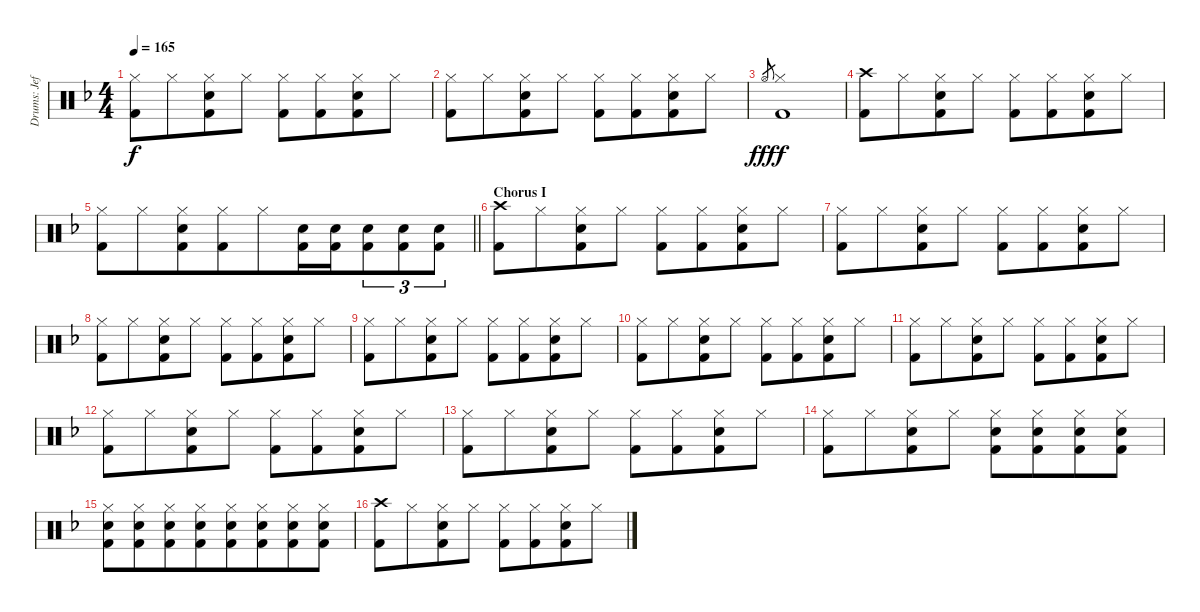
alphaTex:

\track ("Drums: Jeff" "Drums: Jef") {instrument percussion}
\staff {score}
\articulation defaults
\ts (4 4)
\tempo 165
\clef neutral
\ks f
("Hi-Hat (closed)" "Kick (hit) 2").8{dy f} "Hi-Hat (closed)".8{beam merge} ("Hi-Hat (closed)" "Snare (hit) 2" "Kick (hit) 2").8 "Hi-Hat (closed)".8{beam split} ("Hi-Hat (closed)" "Kick (hit) 2").8 ("Hi-Hat (closed)" "Kick (hit) 2").8{beam merge} ("Hi-Hat (closed)" "Snare (hit) 2" "Kick (hit) 2").8 "Hi-Hat (closed)".8 |
("Hi-Hat (closed)" "Kick (hit) 2").8 "Hi-Hat (closed)".8{beam merge} ("Hi-Hat (closed)" "Snare (hit) 2" "Kick (hit) 2").8 "Hi-Hat (closed)".8{beam split} ("Hi-Hat (closed)" "Kick (hit) 2").8 ("Hi-Hat (closed)" "Kick (hit) 2").8{beam merge} ("Hi-Hat (closed)" "Snare (hit) 2" "Kick (hit) 2").8 "Hi-Hat (closed)".8 |
"Hi-Hat (open)".8{gr dy fff} ("Hi-Hat (closed)" "Kick (hit) 2").1{dy f} |
("Crash high (hit)" "Kick (hit) 2").8 "Hi-Hat (closed)".8{beam merge} ("Hi-Hat (closed)" "Snare (hit) 2" "Kick (hit) 2").8 "Hi-Hat (closed)".8{beam split} ("Hi-Hat (closed)" "Kick (hit) 2").8 ("Hi-Hat (closed)" "Kick (hit) 2").8{beam merge} ("Hi-Hat (closed)" "Snare (hit) 2" "Kick (hit) 2").8 "Hi-Hat (closed)".8 |
\barLineRight lightlight
("Hi-Hat (closed)" "Kick (hit) 2").8 "Hi-Hat (closed)".8{beam merge} ("Hi-Hat (closed)" "Snare (hit) 2" "Kick (hit) 2").8{beam merge} ("Hi-Hat (closed)" "Kick (hit) 2").8{beam merge} "Hi-Hat (closed)".8{beam merge} ("Snare (hit) 2" "Kick (hit) 2").16{beam merge} ("Snare (hit) 2" "Kick (hit) 2").16{beam merge} ("Snare (hit) 2" "Kick (hit) 2").8{tu (3 2) beam merge} ("Snare (hit) 2" "Kick (hit) 2").8{tu (3 2) beam merge} ("Snare (hit) 2" "Kick (hit) 2").8{tu (3 2)} |
\section ("" "Chorus I")
("Crash high (hit)" "Kick (hit) 2").8 "Hi-Hat (closed)".8{beam merge} ("Hi-Hat (closed)" "Snare (hit) 2" "Kick (hit) 2").8 "Hi-Hat (closed)".8{beam split} ("Hi-Hat (closed)" "Kick (hit) 2").8 ("Hi-Hat (closed)" "Kick (hit) 2").8{beam merge} ("Hi-Hat (closed)" "Snare (hit) 2" "Kick (hit) 2").8 "Hi-Hat (closed)".8 |
("Hi-Hat (closed)" "Kick (hit) 2").8 "Hi-Hat (closed)".8{beam merge} ("Hi-Hat (closed)" "Snare (hit) 2" "Kick (hit) 2").8 "Hi-Hat (closed)".8{beam split} ("Hi-Hat (closed)" "Kick (hit) 2").8 ("Hi-Hat (closed)" "Kick (hit) 2").8{beam merge} ("Hi-Hat (closed)" "Snare (hit) 2" "Kick (hit) 2").8 "Hi-Hat (closed)".8 |
("Hi-Hat (closed)" "Kick (hit) 2").8 "Hi-Hat (closed)".8{beam merge} ("Hi-Hat (closed)" "Snare (hit) 2" "Kick (hit) 2").8 "Hi-Hat (closed)".8{beam split} ("Hi-Hat (closed)" "Kick (hit) 2").8 ("Hi-Hat (closed)" "Kick (hit) 2").8{beam merge} ("Hi-Hat (closed)" "Snare (hit) 2" "Kick (hit) 2").8 "Hi-Hat (closed)".8 |
("Hi-Hat (closed)" "Kick (hit) 2").8 "Hi-Hat (closed)".8{beam merge} ("Hi-Hat (closed)" "Snare (hit) 2" "Kick (hit) 2").8 "Hi-Hat (closed)".8{beam split} ("Hi-Hat (closed)" "Kick (hit) 2").8 ("Hi-Hat (closed)" "Kick (hit) 2").8{beam merge} ("Hi-Hat (closed)" "Snare (hit) 2" "Kick (hit) 2").8 "Hi-Hat (closed)".8 |
("Hi-Hat (closed)" "Kick (hit) 2").8 "Hi-Hat (closed)".8{beam merge} ("Hi-Hat (closed)" "Snare (hit) 2" "Kick (hit) 2").8 "Hi-Hat (closed)".8{beam split} ("Hi-Hat (closed)" "Kick (hit) 2").8 ("Hi-Hat (closed)" "Kick (hit) 2").8{beam merge} ("Hi-Hat (closed)" "Snare (hit) 2" "Kick (hit) 2").8 "Hi-Hat (closed)".8 |
("Hi-Hat (closed)" "Kick (hit) 2").8 "Hi-Hat (closed)".8{beam merge} ("Hi-Hat (closed)" "Snare (hit) 2" "Kick (hit) 2").8 "Hi-Hat (closed)".8{beam split} ("Hi-Hat (closed)" "Kick (hit) 2").8 ("Hi-Hat (closed)" "Kick (hit) 2").8{beam merge} ("Hi-Hat (closed)" "Snare (hit) 2" "Kick (hit) 2").8 "Hi-Hat (closed)".8 |
("Hi-Hat (closed)" "Kick (hit) 2").8 "Hi-Hat (closed)".8{beam merge} ("Hi-Hat (closed)" "Snare (hit) 2" "Kick (hit) 2").8 "Hi-Hat (closed)".8{beam split} ("Hi-Hat (closed)" "Kick (hit) 2").8 ("Hi-Hat (closed)" "Kick (hit) 2").8{beam merge} ("Hi-Hat (closed)" "Snare (hit) 2" "Kick (hit) 2").8 "Hi-Hat (closed)".8 |
("Hi-Hat (closed)" "Kick (hit) 2").8 "Hi-Hat (closed)".8{beam merge} ("Hi-Hat (closed)" "Snare (hit) 2" "Kick (hit) 2").8 "Hi-Hat (closed)".8{beam split} ("Hi-Hat (closed)" "Kick (hit) 2").8 ("Hi-Hat (closed)" "Kick (hit) 2").8{beam merge} ("Hi-Hat (closed)" "Snare (hit) 2" "Kick (hit) 2").8 "Hi-Hat (closed)".8 |
("Hi-Hat (closed)" "Kick (hit) 2").8 "Hi-Hat (closed)".8{beam merge} ("Hi-Hat (closed)" "Snare (hit) 2" "Kick (hit) 2").8 "Hi-Hat (closed)".8{beam split} ("Hi-Hat (closed)" "Snare (hit) 2" "Kick (hit) 2").8{beam merge} ("Hi-Hat (closed)" "Snare (hit) 2" "Kick (hit) 2").8{beam merge} ("Hi-Hat (closed)" "Snare (hit) 2" "Kick (hit) 2").8{beam merge} ("Hi-Hat (closed)" "Snare (hit) 2" "Kick (hit) 2").8 |
("Hi-Hat (closed)" "Snare (hit) 2" "Kick (hit) 2").8{beam merge} ("Hi-Hat (closed)" "Snare (hit) 2" "Kick (hit) 2").8{beam merge} ("Hi-Hat (closed)" "Snare (hit) 2" "Kick (hit) 2").8{beam merge} ("Hi-Hat (closed)" "Snare (hit) 2" "Kick (hit) 2").8{beam merge} ("Hi-Hat (closed)" "Snare (hit) 2" "Kick (hit) 2").8{beam merge} ("Hi-Hat (closed)" "Snare (hit) 2" "Kick (hit) 2").8{beam merge} ("Hi-Hat (closed)" "Snare (hit) 2" "Kick (hit) 2").8{beam merge} ("Hi-Hat (closed)" "Snare (hit) 2" "Kick (hit) 2").8 |
("Crash high (hit)" "Kick (hit) 2").8 "Hi-Hat (closed)".8{beam merge} ("Hi-Hat (closed)" "Snare (hit) 2" "Kick (hit) 2").8 "Hi-Hat (closed)".8{beam split} ("Hi-Hat (closed)" "Kick (hit) 2").8 ("Hi-Hat (closed)" "Kick (hit) 2").8{beam merge} ("Hi-Hat (closed)" "Snare (hit) 2" "Kick (hit) 2").8 "Hi-Hat (closed)".8
